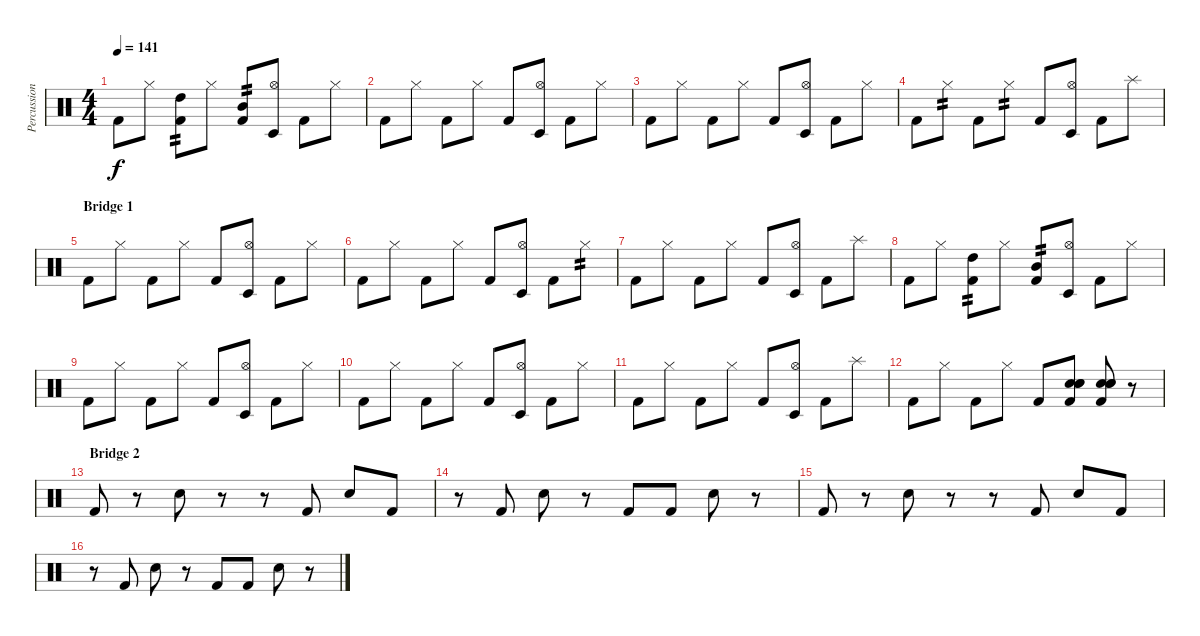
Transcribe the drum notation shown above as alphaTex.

\track ("Percussion" "Percussion") {instrument percussion}
\staff {score}
\articulation defaults
\ts (4 4)
\tempo 141
\clef neutral
\ks c "Kick (hit) 2".8{dy f} "Hi-Hat (closed)".8
("High Tom (hit)" "Kick (hit) 2").8{tp 2} "Hi-Hat (closed)".8 ("Mid Tom (hit)" "Kick (hit) 2").8{tp 2} ("Hi-Hat (open)" "Timbale low (hit)").8 "Kick (hit) 2".8 "Hi-Hat (closed)".8 |
"Kick (hit) 2".8 "Hi-Hat (closed)".8 "Kick (hit) 2".8 "Hi-Hat (closed)".8 "Kick (hit) 2".8 ("Hi-Hat (open)" "Timbale low (hit)").8 "Kick (hit) 2".8 "Hi-Hat (closed)".8 |
"Kick (hit) 2".8 "Hi-Hat (closed)".8 "Kick (hit) 2".8 "Hi-Hat (closed)".8 "Kick (hit) 2".8 ("Hi-Hat (open)" "Timbale low (hit)").8 "Kick (hit) 2".8 "Hi-Hat (closed)".8 |
"Kick (hit) 2".8 "Hi-Hat (closed)".8{tp 2} "Kick (hit) 2".8 "Hi-Hat (closed)".8{tp 2} "Kick (hit) 2".8 ("Hi-Hat (open)" "Timbale low (hit)").8 "Kick (hit) 2".8 "Splash (hit)".8 |
\section ("" "Bridge 1")
"Kick (hit) 2".8 "Hi-Hat (closed)".8 "Kick (hit) 2".8 "Hi-Hat (closed)".8 "Kick (hit) 2".8 ("Hi-Hat (open)" "Timbale low (hit)").8 "Kick (hit) 2".8 "Hi-Hat (closed)".8 |
"Kick (hit) 2".8 "Hi-Hat (closed)".8 "Kick (hit) 2".8 "Hi-Hat (closed)".8 "Kick (hit) 2".8 ("Hi-Hat (open)" "Timbale low (hit)").8 "Kick (hit) 2".8 "Hi-Hat (closed)".8{tp 2} |
"Kick (hit) 2".8 "Hi-Hat (closed)".8 "Kick (hit) 2".8 "Hi-Hat (closed)".8 "Kick (hit) 2".8 ("Hi-Hat (open)" "Timbale low (hit)").8 "Kick (hit) 2".8 "Splash (hit)".8 |
"Kick (hit) 2".8 "Hi-Hat (closed)".8 ("High Tom (hit)" "Kick (hit) 2").8{tp 2} "Hi-Hat (closed)".8 ("Mid Tom (hit)" "Kick (hit) 2").8{tp 2} ("Hi-Hat (open)" "Timbale low (hit)").8 "Kick (hit) 2".8 "Hi-Hat (closed)".8 |
"Kick (hit) 2".8 "Hi-Hat (closed)".8 "Kick (hit) 2".8 "Hi-Hat (closed)".8 "Kick (hit) 2".8 ("Hi-Hat (open)" "Timbale low (hit)").8 "Kick (hit) 2".8 "Hi-Hat (closed)".8 |
"Kick (hit) 2".8 "Hi-Hat (closed)".8 "Kick (hit) 2".8 "Hi-Hat (closed)".8 "Kick (hit) 2".8 ("Hi-Hat (open)" "Timbale low (hit)").8 "Kick (hit) 2".8 "Hi-Hat (closed)".8 |
"Kick (hit) 2".8 "Hi-Hat (closed)".8 "Kick (hit) 2".8 "Hi-Hat (closed)".8 "Kick (hit) 2".8 ("Hi-Hat (open)" "Timbale low (hit)").8 "Kick (hit) 2".8 "Splash (hit)".8 |
"Kick (hit) 2".8 "Hi-Hat (closed)".8 "Kick (hit) 2".8 "Hi-Hat (closed)".8 "Kick (hit) 2".8 ("Electric Snare (hit)" "Electric Snare (hit)" "Electric Snare (hit)" "Kick (hit) 2").8 ("Electric Snare (hit)" "Electric Snare (hit)" "Electric Snare (hit)" "Kick (hit) 2").8 r.8 |
\section ("" "Bridge 2")
"Kick (hit) 2".8 r.8 "Electric Snare (hit)".8 r.8 r.8 "Kick (hit) 2".8 "Electric Snare (hit)".8 "Kick (hit) 2".8 |
r.8 "Kick (hit) 2".8 "Electric Snare (hit)".8 r.8 "Kick (hit) 2".8 "Kick (hit) 2".8 "Electric Snare (hit)".8 r.8 |
"Kick (hit) 2".8 r.8 "Electric Snare (hit)".8 r.8 r.8 "Kick (hit) 2".8 "Electric Snare (hit)".8 "Kick (hit) 2".8 |
r.8 "Kick (hit) 2".8 "Electric Snare (hit)".8 r.8 "Kick (hit) 2".8 "Kick (hit) 2".8 "Electric Snare (hit)".8 r.8
